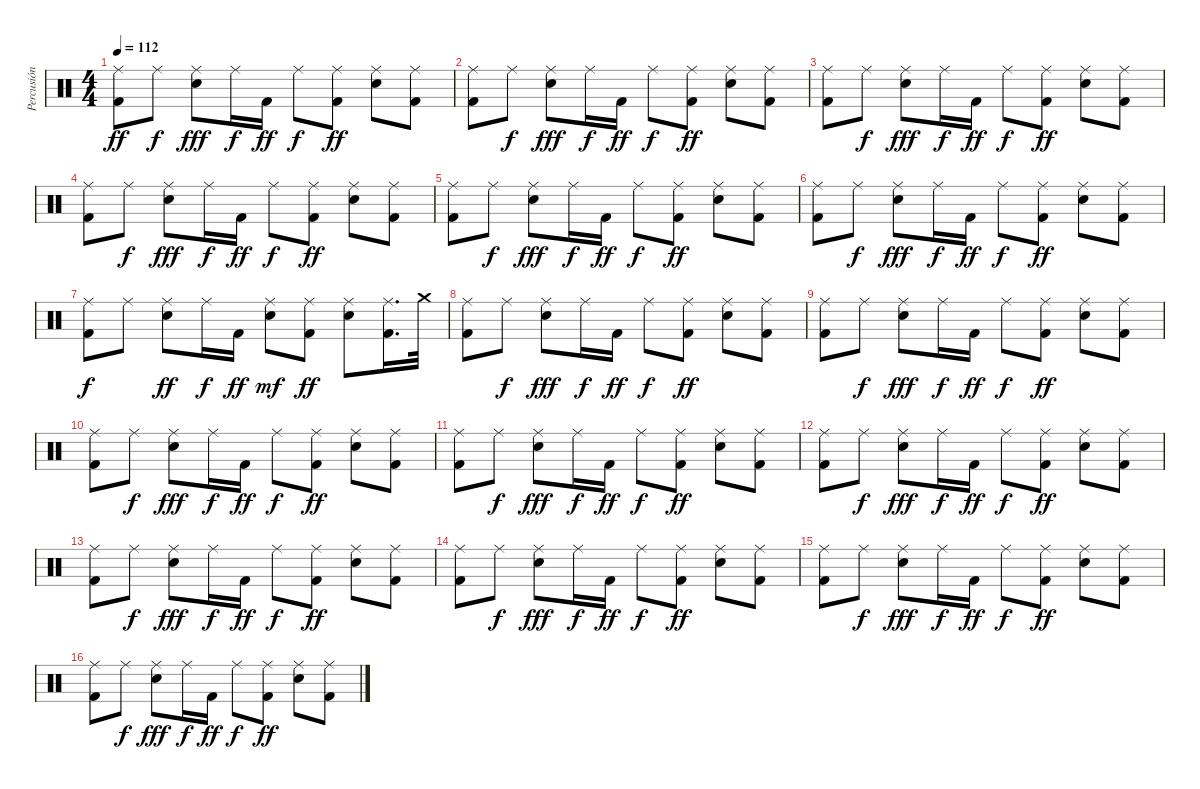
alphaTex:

\track ("Percusión" "Percusión") {instrument percussion}
\staff {score}
\articulation defaults
\ts (4 4)
\tempo 112
\clef neutral
\ks c
("Kick (hit) 2" "Ride (middle)").8{dy ff} "Ride (middle)".8{dy f} ("Snare (hit) 2" "Ride (middle)").8{dy fff} "Ride (middle)".16{dy f} "Kick (hit) 2".16{dy ff} "Ride (middle)".8{dy f} ("Kick (hit) 2" "Ride (middle)").8{dy ff} ("Snare (hit) 2" "Ride (middle)").8 ("Kick (hit) 2" "Ride (middle)").8 |
("Kick (hit) 2" "Ride (middle)").8 "Ride (middle)".8{dy f} ("Snare (hit) 2" "Ride (middle)").8{dy fff} "Ride (middle)".16{dy f} "Kick (hit) 2".16{dy ff} "Ride (middle)".8{dy f} ("Kick (hit) 2" "Ride (middle)").8{dy ff} ("Snare (hit) 2" "Ride (middle)").8 ("Kick (hit) 2" "Ride (middle)").8 |
("Kick (hit) 2" "Ride (middle)").8 "Ride (middle)".8{dy f} ("Snare (hit) 2" "Ride (middle)").8{dy fff} "Ride (middle)".16{dy f} "Kick (hit) 2".16{dy ff} "Ride (middle)".8{dy f} ("Kick (hit) 2" "Ride (middle)").8{dy ff} ("Snare (hit) 2" "Ride (middle)").8 ("Kick (hit) 2" "Ride (middle)").8 |
("Kick (hit) 2" "Ride (middle)").8 "Ride (middle)".8{dy f} ("Snare (hit) 2" "Ride (middle)").8{dy fff} "Ride (middle)".16{dy f} "Kick (hit) 2".16{dy ff} "Ride (middle)".8{dy f} ("Kick (hit) 2" "Ride (middle)").8{dy ff} ("Snare (hit) 2" "Ride (middle)").8 ("Kick (hit) 2" "Ride (middle)").8 |
("Kick (hit) 2" "Ride (middle)").8 "Ride (middle)".8{dy f} ("Snare (hit) 2" "Ride (middle)").8{dy fff} "Ride (middle)".16{dy f} "Kick (hit) 2".16{dy ff} "Ride (middle)".8{dy f} ("Kick (hit) 2" "Ride (middle)").8{dy ff} ("Snare (hit) 2" "Ride (middle)").8 ("Kick (hit) 2" "Ride (middle)").8 |
("Kick (hit) 2" "Ride (middle)").8 "Ride (middle)".8{dy f} ("Snare (hit) 2" "Ride (middle)").8{dy fff} "Ride (middle)".16{dy f} "Kick (hit) 2".16{dy ff} "Ride (middle)".8{dy f} ("Kick (hit) 2" "Ride (middle)").8{dy ff} ("Snare (hit) 2" "Ride (middle)").8 ("Kick (hit) 2" "Ride (middle)").8 |
("Ride (middle)" "Kick (hit) 2").8{dy f} "Ride (middle)".8 ("Ride (middle)" "Snare (hit) 2").8{dy ff} "Ride (middle)".16{dy f} "Kick (hit) 2".16{dy ff} ("Snare (hit)" "Ride (middle)").8{dy mf} ("Ride (middle)" "Kick (hit) 2").8{dy ff} ("Ride (middle)" "Snare (hit) 2").8 ("Ride (middle)" "Kick (hit) 2").16{d} "Crash medium (hit)".32 |
("Kick (hit) 2" "Ride (middle)").8 "Ride (middle)".8{dy f} ("Snare (hit) 2" "Ride (middle)").8{dy fff} "Ride (middle)".16{dy f} "Kick (hit) 2".16{dy ff} "Ride (middle)".8{dy f} ("Kick (hit) 2" "Ride (middle)").8{dy ff} ("Snare (hit) 2" "Ride (middle)").8 ("Kick (hit) 2" "Ride (middle)").8 |
("Kick (hit) 2" "Ride (middle)").8 "Ride (middle)".8{dy f} ("Snare (hit) 2" "Ride (middle)").8{dy fff} "Ride (middle)".16{dy f} "Kick (hit) 2".16{dy ff} "Ride (middle)".8{dy f} ("Kick (hit) 2" "Ride (middle)").8{dy ff} ("Snare (hit) 2" "Ride (middle)").8 ("Kick (hit) 2" "Ride (middle)").8 |
("Kick (hit) 2" "Ride (middle)").8 "Ride (middle)".8{dy f} ("Snare (hit) 2" "Ride (middle)").8{dy fff} "Ride (middle)".16{dy f} "Kick (hit) 2".16{dy ff} "Ride (middle)".8{dy f} ("Kick (hit) 2" "Ride (middle)").8{dy ff} ("Snare (hit) 2" "Ride (middle)").8 ("Kick (hit) 2" "Ride (middle)").8 |
("Kick (hit) 2" "Ride (middle)").8 "Ride (middle)".8{dy f} ("Snare (hit) 2" "Ride (middle)").8{dy fff} "Ride (middle)".16{dy f} "Kick (hit) 2".16{dy ff} "Ride (middle)".8{dy f} ("Kick (hit) 2" "Ride (middle)").8{dy ff} ("Snare (hit) 2" "Ride (middle)").8 ("Kick (hit) 2" "Ride (middle)").8 |
("Kick (hit) 2" "Ride (middle)").8 "Ride (middle)".8{dy f} ("Snare (hit) 2" "Ride (middle)").8{dy fff} "Ride (middle)".16{dy f} "Kick (hit) 2".16{dy ff} "Ride (middle)".8{dy f} ("Kick (hit) 2" "Ride (middle)").8{dy ff} ("Snare (hit) 2" "Ride (middle)").8 ("Kick (hit) 2" "Ride (middle)").8 |
("Kick (hit) 2" "Ride (middle)").8 "Ride (middle)".8{dy f} ("Snare (hit) 2" "Ride (middle)").8{dy fff} "Ride (middle)".16{dy f} "Kick (hit) 2".16{dy ff} "Ride (middle)".8{dy f} ("Kick (hit) 2" "Ride (middle)").8{dy ff} ("Snare (hit) 2" "Ride (middle)").8 ("Kick (hit) 2" "Ride (middle)").8 |
("Kick (hit) 2" "Ride (middle)").8 "Ride (middle)".8{dy f} ("Snare (hit) 2" "Ride (middle)").8{dy fff} "Ride (middle)".16{dy f} "Kick (hit) 2".16{dy ff} "Ride (middle)".8{dy f} ("Kick (hit) 2" "Ride (middle)").8{dy ff} ("Snare (hit) 2" "Ride (middle)").8 ("Kick (hit) 2" "Ride (middle)").8 |
("Kick (hit) 2" "Ride (middle)").8 "Ride (middle)".8{dy f} ("Snare (hit) 2" "Ride (middle)").8{dy fff} "Ride (middle)".16{dy f} "Kick (hit) 2".16{dy ff} "Ride (middle)".8{dy f} ("Kick (hit) 2" "Ride (middle)").8{dy ff} ("Snare (hit) 2" "Ride (middle)").8 ("Kick (hit) 2" "Ride (middle)").8 |
("Kick (hit) 2" "Ride (middle)").8 "Ride (middle)".8{dy f} ("Snare (hit) 2" "Ride (middle)").8{dy fff} "Ride (middle)".16{dy f} "Kick (hit) 2".16{dy ff} "Ride (middle)".8{dy f} ("Kick (hit) 2" "Ride (middle)").8{dy ff} ("Snare (hit) 2" "Ride (middle)").8 ("Kick (hit) 2" "Ride (middle)").8
